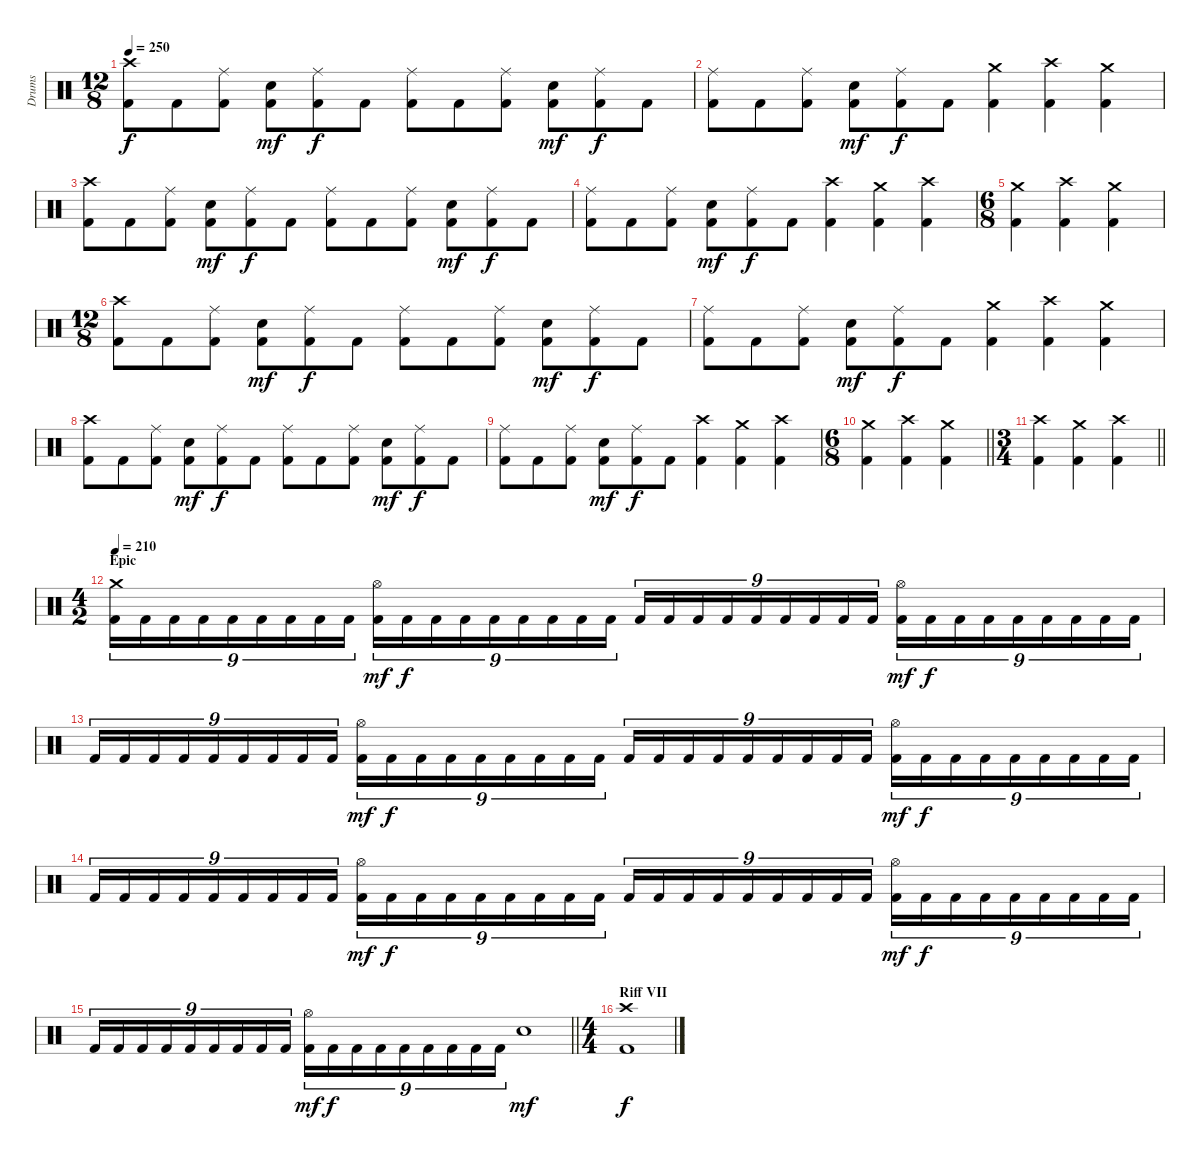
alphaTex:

\track ("Drums" "Drums") {instrument percussion}
\staff {score}
\articulation defaults
\ts (12 8)
\tempo 250
\clef neutral
\ks c
("Crash high (hit)" "Kick (hit) 2").8{dy f} "Kick (hit) 2".8 ("Ride (middle)" "Kick (hit) 2").8 ("Electric Snare (hit)" "Kick (hit) 2").8{dy mf} ("Ride (middle)" "Kick (hit) 2").8{dy f} "Kick (hit) 2".8 ("Ride (middle)" "Kick (hit) 2").8 "Kick (hit) 2".8 ("Ride (middle)" "Kick (hit) 2").8 ("Electric Snare (hit)" "Kick (hit) 2").8{dy mf} ("Ride (middle)" "Kick (hit) 2").8{dy f} "Kick (hit) 2".8 |
("Ride (middle)" "Kick (hit) 2").8 "Kick (hit) 2".8 ("Ride (middle)" "Kick (hit) 2").8 ("Electric Snare (hit)" "Kick (hit) 2").8{dy mf} ("Ride (middle)" "Kick (hit) 2").8{dy f} "Kick (hit) 2".8 ("Crash medium (hit)" "Kick (hit) 2").4 ("Crash high (hit)" "Kick (hit) 2").4 ("Crash medium (hit)" "Kick (hit) 2").4 |
("Crash high (hit)" "Kick (hit) 2").8 "Kick (hit) 2".8 ("Ride (middle)" "Kick (hit) 2").8 ("Electric Snare (hit)" "Kick (hit) 2").8{dy mf} ("Ride (middle)" "Kick (hit) 2").8{dy f} "Kick (hit) 2".8 ("Ride (middle)" "Kick (hit) 2").8 "Kick (hit) 2".8 ("Ride (middle)" "Kick (hit) 2").8 ("Electric Snare (hit)" "Kick (hit) 2").8{dy mf} ("Ride (middle)" "Kick (hit) 2").8{dy f} "Kick (hit) 2".8 |
("Ride (middle)" "Kick (hit) 2").8 "Kick (hit) 2".8 ("Ride (middle)" "Kick (hit) 2").8 ("Electric Snare (hit)" "Kick (hit) 2").8{dy mf} ("Ride (middle)" "Kick (hit) 2").8{dy f} "Kick (hit) 2".8 ("Crash high (hit)" "Kick (hit) 2").4 ("Crash medium (hit)" "Kick (hit) 2").4 ("Crash high (hit)" "Kick (hit) 2").4 |
\ts (6 8)
("Crash medium (hit)" "Kick (hit) 2").4 ("Crash high (hit)" "Kick (hit) 2").4 ("Crash medium (hit)" "Kick (hit) 2").4 |
\ts (12 8)
("Crash high (hit)" "Kick (hit) 2").8 "Kick (hit) 2".8 ("Ride (middle)" "Kick (hit) 2").8 ("Electric Snare (hit)" "Kick (hit) 2").8{dy mf} ("Ride (middle)" "Kick (hit) 2").8{dy f} "Kick (hit) 2".8 ("Ride (middle)" "Kick (hit) 2").8 "Kick (hit) 2".8 ("Ride (middle)" "Kick (hit) 2").8 ("Electric Snare (hit)" "Kick (hit) 2").8{dy mf} ("Ride (middle)" "Kick (hit) 2").8{dy f} "Kick (hit) 2".8 |
("Ride (middle)" "Kick (hit) 2").8 "Kick (hit) 2".8 ("Ride (middle)" "Kick (hit) 2").8 ("Electric Snare (hit)" "Kick (hit) 2").8{dy mf} ("Ride (middle)" "Kick (hit) 2").8{dy f} "Kick (hit) 2".8 ("Crash medium (hit)" "Kick (hit) 2").4 ("Crash high (hit)" "Kick (hit) 2").4 ("Crash medium (hit)" "Kick (hit) 2").4 |
("Crash high (hit)" "Kick (hit) 2").8 "Kick (hit) 2".8 ("Ride (middle)" "Kick (hit) 2").8 ("Electric Snare (hit)" "Kick (hit) 2").8{dy mf} ("Ride (middle)" "Kick (hit) 2").8{dy f} "Kick (hit) 2".8 ("Ride (middle)" "Kick (hit) 2").8 "Kick (hit) 2".8 ("Ride (middle)" "Kick (hit) 2").8 ("Electric Snare (hit)" "Kick (hit) 2").8{dy mf} ("Ride (middle)" "Kick (hit) 2").8{dy f} "Kick (hit) 2".8 |
("Ride (middle)" "Kick (hit) 2").8 "Kick (hit) 2".8 ("Ride (middle)" "Kick (hit) 2").8 ("Electric Snare (hit)" "Kick (hit) 2").8{dy mf} ("Ride (middle)" "Kick (hit) 2").8{dy f} "Kick (hit) 2".8 ("Crash high (hit)" "Kick (hit) 2").4 ("Crash medium (hit)" "Kick (hit) 2").4 ("Crash high (hit)" "Kick (hit) 2").4 |
\ts (6 8)
\barLineRight lightlight
("Crash medium (hit)" "Kick (hit) 2").4 ("Crash high (hit)" "Kick (hit) 2").4 ("Crash medium (hit)" "Kick (hit) 2").4 |
\ts (3 4)
\barLineRight lightlight
("Crash high (hit)" "Kick (hit) 2").4 ("Crash medium (hit)" "Kick (hit) 2").4 ("Crash high (hit)" "Kick (hit) 2").4 |
\ts (4 2)
\section ("" "Epic")
\tempo 210
("Crash medium (hit)" "Kick (hit) 2").16{tu (9 8)} "Kick (hit) 2".16{tu (9 8)} "Kick (hit) 2".16{tu (9 8)} "Kick (hit) 2".16{tu (9 8)} "Kick (hit) 2".16{tu (9 8)} "Kick (hit) 2".16{tu (9 8)} "Kick (hit) 2".16{tu (9 8)} "Kick (hit) 2".16{tu (9 8)} "Kick (hit) 2".16{tu (9 8)} ("Hi-Hat (open)" "Kick (hit) 2").16{tu (9 8) dy mf} "Kick (hit) 2".16{tu (9 8) dy f} "Kick (hit) 2".16{tu (9 8)} "Kick (hit) 2".16{tu (9 8)} "Kick (hit) 2".16{tu (9 8)} "Kick (hit) 2".16{tu (9 8)} "Kick (hit) 2".16{tu (9 8)} "Kick (hit) 2".16{tu (9 8)} "Kick (hit) 2".16{tu (9 8)} "Kick (hit) 2".16{tu (9 8)} "Kick (hit) 2".16{tu (9 8)} "Kick (hit) 2".16{tu (9 8)} "Kick (hit) 2".16{tu (9 8)} "Kick (hit) 2".16{tu (9 8)} "Kick (hit) 2".16{tu (9 8)} "Kick (hit) 2".16{tu (9 8)} "Kick (hit) 2".16{tu (9 8)} "Kick (hit) 2".16{tu (9 8)} ("Hi-Hat (open)" "Kick (hit) 2").16{tu (9 8) dy mf} "Kick (hit) 2".16{tu (9 8) dy f} "Kick (hit) 2".16{tu (9 8)} "Kick (hit) 2".16{tu (9 8)} "Kick (hit) 2".16{tu (9 8)} "Kick (hit) 2".16{tu (9 8)} "Kick (hit) 2".16{tu (9 8)} "Kick (hit) 2".16{tu (9 8)} "Kick (hit) 2".16{tu (9 8)} |
"Kick (hit) 2".16{tu (9 8)} "Kick (hit) 2".16{tu (9 8)} "Kick (hit) 2".16{tu (9 8)} "Kick (hit) 2".16{tu (9 8)} "Kick (hit) 2".16{tu (9 8)} "Kick (hit) 2".16{tu (9 8)} "Kick (hit) 2".16{tu (9 8)} "Kick (hit) 2".16{tu (9 8)} "Kick (hit) 2".16{tu (9 8)} ("Hi-Hat (open)" "Kick (hit) 2").16{tu (9 8) dy mf} "Kick (hit) 2".16{tu (9 8) dy f} "Kick (hit) 2".16{tu (9 8)} "Kick (hit) 2".16{tu (9 8)} "Kick (hit) 2".16{tu (9 8)} "Kick (hit) 2".16{tu (9 8)} "Kick (hit) 2".16{tu (9 8)} "Kick (hit) 2".16{tu (9 8)} "Kick (hit) 2".16{tu (9 8)} "Kick (hit) 2".16{tu (9 8)} "Kick (hit) 2".16{tu (9 8)} "Kick (hit) 2".16{tu (9 8)} "Kick (hit) 2".16{tu (9 8)} "Kick (hit) 2".16{tu (9 8)} "Kick (hit) 2".16{tu (9 8)} "Kick (hit) 2".16{tu (9 8)} "Kick (hit) 2".16{tu (9 8)} "Kick (hit) 2".16{tu (9 8)} ("Hi-Hat (open)" "Kick (hit) 2").16{tu (9 8) dy mf} "Kick (hit) 2".16{tu (9 8) dy f} "Kick (hit) 2".16{tu (9 8)} "Kick (hit) 2".16{tu (9 8)} "Kick (hit) 2".16{tu (9 8)} "Kick (hit) 2".16{tu (9 8)} "Kick (hit) 2".16{tu (9 8)} "Kick (hit) 2".16{tu (9 8)} "Kick (hit) 2".16{tu (9 8)} |
"Kick (hit) 2".16{tu (9 8)} "Kick (hit) 2".16{tu (9 8)} "Kick (hit) 2".16{tu (9 8)} "Kick (hit) 2".16{tu (9 8)} "Kick (hit) 2".16{tu (9 8)} "Kick (hit) 2".16{tu (9 8)} "Kick (hit) 2".16{tu (9 8)} "Kick (hit) 2".16{tu (9 8)} "Kick (hit) 2".16{tu (9 8)} ("Hi-Hat (open)" "Kick (hit) 2").16{tu (9 8) dy mf} "Kick (hit) 2".16{tu (9 8) dy f} "Kick (hit) 2".16{tu (9 8)} "Kick (hit) 2".16{tu (9 8)} "Kick (hit) 2".16{tu (9 8)} "Kick (hit) 2".16{tu (9 8)} "Kick (hit) 2".16{tu (9 8)} "Kick (hit) 2".16{tu (9 8)} "Kick (hit) 2".16{tu (9 8)} "Kick (hit) 2".16{tu (9 8)} "Kick (hit) 2".16{tu (9 8)} "Kick (hit) 2".16{tu (9 8)} "Kick (hit) 2".16{tu (9 8)} "Kick (hit) 2".16{tu (9 8)} "Kick (hit) 2".16{tu (9 8)} "Kick (hit) 2".16{tu (9 8)} "Kick (hit) 2".16{tu (9 8)} "Kick (hit) 2".16{tu (9 8)} ("Hi-Hat (open)" "Kick (hit) 2").16{tu (9 8) dy mf} "Kick (hit) 2".16{tu (9 8) dy f} "Kick (hit) 2".16{tu (9 8)} "Kick (hit) 2".16{tu (9 8)} "Kick (hit) 2".16{tu (9 8)} "Kick (hit) 2".16{tu (9 8)} "Kick (hit) 2".16{tu (9 8)} "Kick (hit) 2".16{tu (9 8)} "Kick (hit) 2".16{tu (9 8)} |
\barLineRight lightlight "Kick (hit) 2".16{tu (9 8)} "Kick (hit) 2".16{tu (9 8)} "Kick (hit) 2".16{tu (9 8)} "Kick (hit) 2".16{tu (9 8)} "Kick (hit) 2".16{tu (9 8)} "Kick (hit) 2".16{tu (9 8)} "Kick (hit) 2".16{tu (9 8)} "Kick (hit) 2".16{tu (9 8)} "Kick (hit) 2".16{tu (9 8)}
("Hi-Hat (open)" "Kick (hit) 2").16{tu (9 8) dy mf} "Kick (hit) 2".16{tu (9 8) dy f} "Kick (hit) 2".16{tu (9 8)} "Kick (hit) 2".16{tu (9 8)} "Kick (hit) 2".16{tu (9 8)} "Kick (hit) 2".16{tu (9 8)} "Kick (hit) 2".16{tu (9 8)} "Kick (hit) 2".16{tu (9 8)} "Kick (hit) 2".16{tu (9 8)} "Electric Snare (hit)".1{dy mf} |
\ts (4 4)
\section ("" "Riff VII")
("Crash high (hit)" "Kick (hit) 2").1{dy f}
